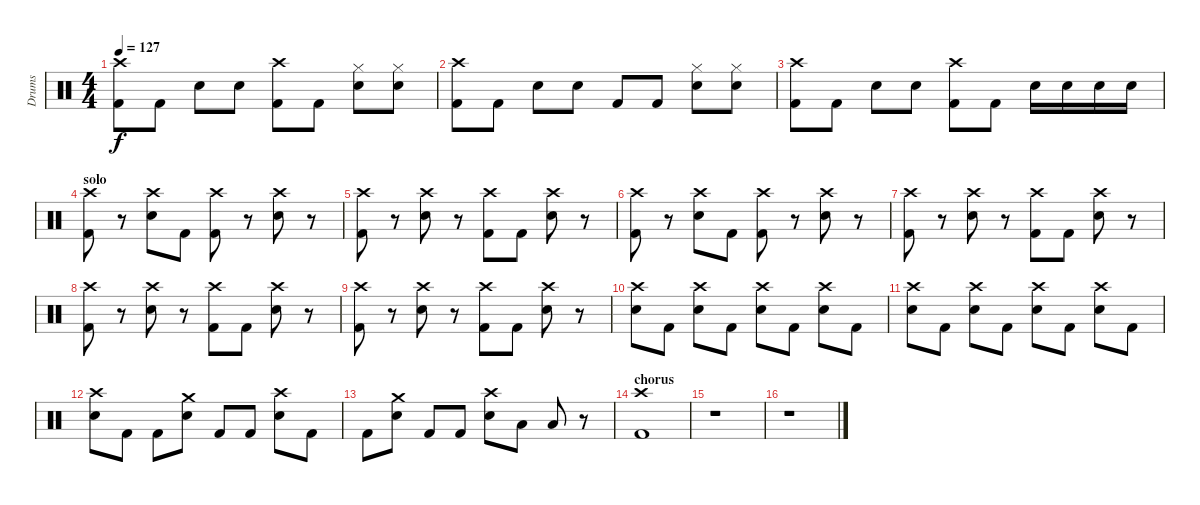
\track ("Drums" "Drums") {instrument percussion}
\staff {score}
\articulation defaults
\ts (4 4)
\tempo 127
\clef neutral
\ks c
("Crash high (hit)" "Kick (hit) 2").8{dy f} "Kick (hit) 2".8 "Snare (hit) 2".8 "Snare (hit) 2".8 ("Crash high (hit)" "Kick (hit) 2").8 "Kick (hit) 2".8 ("Hi-Hat (closed)" "Snare (hit) 2").8 ("Hi-Hat (closed)" "Snare (hit) 2").8 |
("Crash high (hit)" "Kick (hit) 2").8 "Kick (hit) 2".8 "Snare (hit) 2".8 "Snare (hit) 2".8 "Kick (hit) 2".8 "Kick (hit) 2".8 ("Hi-Hat (closed)" "Snare (hit) 2").8 ("Hi-Hat (closed)" "Snare (hit) 2").8 |
("Crash high (hit)" "Kick (hit) 2").8 "Kick (hit) 2".8 "Snare (hit) 2".8 "Snare (hit) 2".8 ("Crash high (hit)" "Kick (hit) 2").8 "Kick (hit) 2".8 "Snare (hit) 2".16 "Snare (hit) 2".16 "Snare (hit) 2".16 "Snare (hit) 2".16 |
\section ("" "solo")
("Crash high (hit)" "Kick (hit) 2").8 r.8 ("Crash high (hit)" "Snare (hit) 2").8 "Kick (hit) 2".8 ("Crash high (hit)" "Kick (hit) 2").8 r.8 ("Crash high (hit)" "Snare (hit) 2").8 r.8 |
("Crash high (hit)" "Kick (hit) 2").8 r.8 ("Crash high (hit)" "Snare (hit) 2").8 r.8 ("Crash high (hit)" "Kick (hit) 2").8 "Kick (hit) 2".8 ("Crash high (hit)" "Snare (hit) 2").8 r.8 |
("Crash high (hit)" "Kick (hit) 2").8 r.8 ("Crash high (hit)" "Snare (hit) 2").8 "Kick (hit) 2".8 ("Crash high (hit)" "Kick (hit) 2").8 r.8 ("Crash high (hit)" "Snare (hit) 2").8 r.8 |
("Crash high (hit)" "Kick (hit) 2").8 r.8 ("Crash high (hit)" "Snare (hit) 2").8 r.8 ("Crash high (hit)" "Kick (hit) 2").8 "Kick (hit) 2".8 ("Crash high (hit)" "Snare (hit) 2").8 r.8 |
("Crash high (hit)" "Kick (hit) 2").8 r.8 ("Crash high (hit)" "Snare (hit) 2").8 r.8 ("Crash high (hit)" "Kick (hit) 2").8 "Kick (hit) 2".8 ("Crash high (hit)" "Snare (hit) 2").8 r.8 |
("Crash high (hit)" "Kick (hit) 2").8 r.8 ("Crash high (hit)" "Snare (hit) 2").8 r.8 ("Crash high (hit)" "Kick (hit) 2").8 "Kick (hit) 2".8 ("Crash high (hit)" "Snare (hit) 2").8 r.8 |
("Crash high (hit)" "Snare (hit) 2").8 "Kick (hit) 2".8 ("Crash high (hit)" "Snare (hit) 2").8 "Kick (hit) 2".8 ("Crash high (hit)" "Snare (hit) 2").8 "Kick (hit) 2".8 ("Crash high (hit)" "Snare (hit) 2").8 "Kick (hit) 2".8 |
("Crash high (hit)" "Snare (hit) 2").8 "Kick (hit) 2".8 ("Crash high (hit)" "Snare (hit) 2").8 "Kick (hit) 2".8 ("Crash high (hit)" "Snare (hit) 2").8 "Kick (hit) 2".8 ("Crash high (hit)" "Snare (hit) 2").8 "Kick (hit) 2".8 |
("Crash high (hit)" "Snare (hit) 2").8 "Kick (hit) 2".8 "Kick (hit) 2".8 ("Crash medium (hit)" "Snare (hit) 2").8 "Kick (hit) 2".8 "Kick (hit) 2".8 ("Crash high (hit)" "Snare (hit) 2").8 "Kick (hit) 2".8 |
"Kick (hit) 2".8 ("Crash medium (hit)" "Snare (hit) 2").8 "Kick (hit) 2".8 "Kick (hit) 2".8 ("Crash high (hit)" "Snare (hit) 2").8 "Low Tom (hit)".8 "Low Floor Tom (hit)".8 r.8 |
\section ("" "chorus")
("Crash high (hit)" "Kick (hit) 2").1 |
r.1 |
r.1
